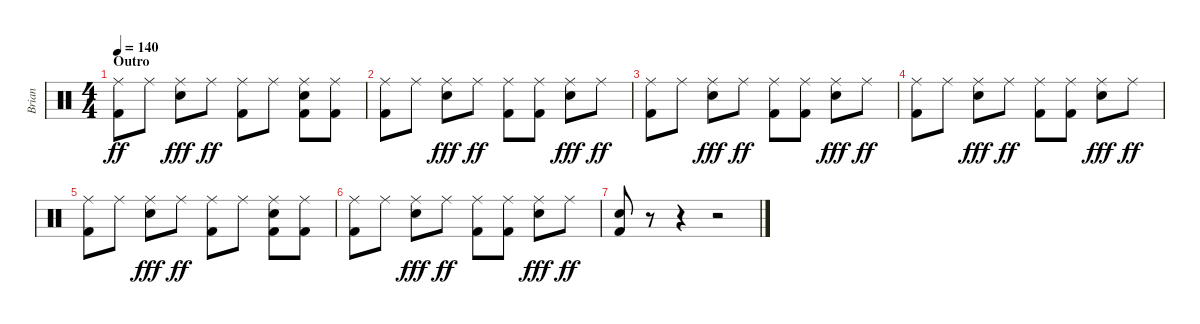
\track ("Brian" "Brian") {instrument percussion}
\staff {score}
\articulation defaults
\ts (4 4)
\section ("" "Outro")
\tempo 140
\clef neutral
\ks c
("Ride (middle)" "Kick (hit) 2").8{dy ff} "Ride (middle)".8 ("Ride (middle)" "Snare (hit) 2").8{dy fff} "Ride (middle)".8{dy ff} ("Ride (middle)" "Kick (hit) 2").8 "Ride (middle)".8 ("Ride (middle)" "Snare (hit) 2" "Kick (hit) 2").8 ("Ride (middle)" "Kick (hit) 2").8 |
("Ride (middle)" "Kick (hit) 2").8 "Ride (middle)".8 ("Ride (middle)" "Snare (hit) 2").8{dy fff} "Ride (middle)".8{dy ff} ("Ride (middle)" "Kick (hit) 2").8 ("Ride (middle)" "Kick (hit) 2").8 ("Ride (middle)" "Snare (hit) 2").8{dy fff} "Ride (middle)".8{dy ff} |
("Ride (middle)" "Kick (hit) 2").8 "Ride (middle)".8 ("Ride (middle)" "Snare (hit) 2").8{dy fff} "Ride (middle)".8{dy ff} ("Ride (middle)" "Kick (hit) 2").8 ("Ride (middle)" "Kick (hit) 2").8 ("Ride (middle)" "Snare (hit) 2").8{dy fff} "Ride (middle)".8{dy ff} |
("Ride (middle)" "Kick (hit) 2").8 "Ride (middle)".8 ("Ride (middle)" "Snare (hit) 2").8{dy fff} "Ride (middle)".8{dy ff} ("Ride (middle)" "Kick (hit) 2").8 ("Ride (middle)" "Kick (hit) 2").8 ("Ride (middle)" "Snare (hit) 2").8{dy fff} "Ride (middle)".8{dy ff} |
("Ride (middle)" "Kick (hit) 2").8 "Ride (middle)".8 ("Ride (middle)" "Snare (hit) 2").8{dy fff} "Ride (middle)".8{dy ff} ("Ride (middle)" "Kick (hit) 2").8 "Ride (middle)".8 ("Ride (middle)" "Snare (hit) 2" "Kick (hit) 2").8 ("Ride (middle)" "Kick (hit) 2").8 |
("Ride (middle)" "Kick (hit) 2").8 "Ride (middle)".8 ("Ride (middle)" "Snare (hit) 2").8{dy fff} "Ride (middle)".8{dy ff} ("Ride (middle)" "Kick (hit) 2").8 ("Ride (middle)" "Kick (hit) 2").8 ("Ride (middle)" "Snare (hit) 2").8{dy fff} "Ride (middle)".8{dy ff} |
("Snare (hit) 2" "Kick (hit) 2").8 r.8 r.4 r.2
